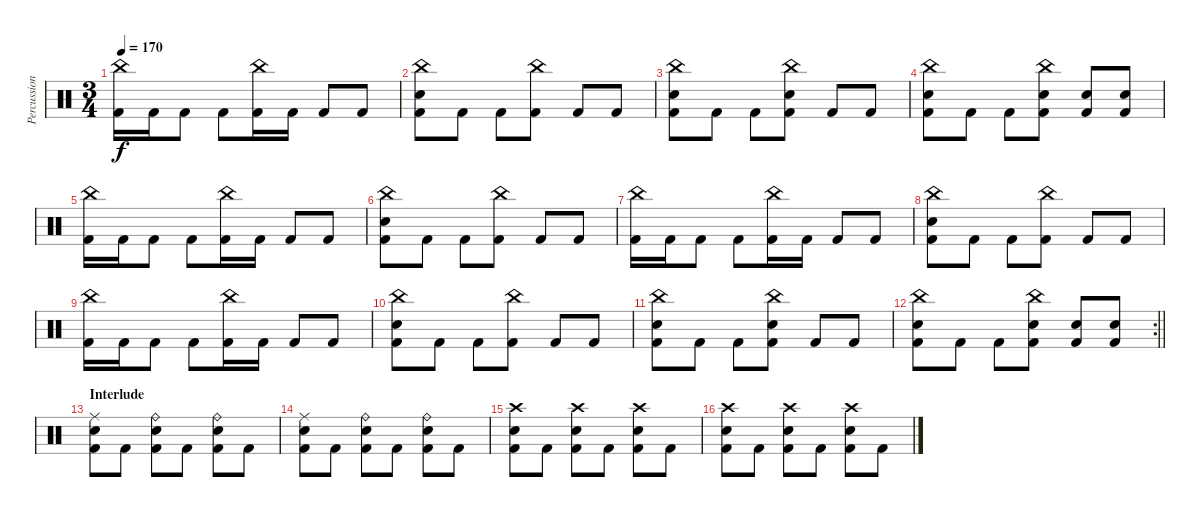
\track ("Percussion" "Percussion") {instrument percussion}
\staff {score}
\articulation defaults
\ts (3 4)
\tempo 170
\clef neutral
\ks c
("China (hit)" "Kick (hit) 2").16{dy f} "Kick (hit) 2".16 "Kick (hit) 2".8 "Kick (hit) 2".8 ("China (hit)" "Kick (hit) 2").16 "Kick (hit) 2".16 "Kick (hit) 2".8 "Kick (hit) 2".8 |
("China (hit)" "Electric Snare (hit)" "Kick (hit) 2").8 "Kick (hit) 2".8 "Kick (hit) 2".8 ("China (hit)" "Kick (hit) 2").8 "Kick (hit) 2".8 "Kick (hit) 2".8 |
("China (hit)" "Electric Snare (hit)" "Kick (hit) 2").8 "Kick (hit) 2".8 "Kick (hit) 2".8 ("China (hit)" "Electric Snare (hit)" "Kick (hit) 2").8 "Kick (hit) 2".8 "Kick (hit) 2".8 |
("China (hit)" "Electric Snare (hit)" "Kick (hit) 2").8 "Kick (hit) 2".8 "Kick (hit) 2".8 ("China (hit)" "Electric Snare (hit)" "Kick (hit) 2").8 ("Electric Snare (hit)" "Kick (hit) 2").8 ("Electric Snare (hit)" "Kick (hit) 2").8 |
("China (hit)" "Kick (hit) 2").16 "Kick (hit) 2".16 "Kick (hit) 2".8 "Kick (hit) 2".8 ("China (hit)" "Kick (hit) 2").16 "Kick (hit) 2".16 "Kick (hit) 2".8 "Kick (hit) 2".8 |
("China (hit)" "Electric Snare (hit)" "Kick (hit) 2").8 "Kick (hit) 2".8 "Kick (hit) 2".8 ("China (hit)" "Kick (hit) 2").8 "Kick (hit) 2".8 "Kick (hit) 2".8 |
("China (hit)" "Kick (hit) 2").16 "Kick (hit) 2".16 "Kick (hit) 2".8 "Kick (hit) 2".8 ("China (hit)" "Kick (hit) 2").16 "Kick (hit) 2".16 "Kick (hit) 2".8 "Kick (hit) 2".8 |
("China (hit)" "Electric Snare (hit)" "Kick (hit) 2").8 "Kick (hit) 2".8 "Kick (hit) 2".8 ("China (hit)" "Kick (hit) 2").8 "Kick (hit) 2".8 "Kick (hit) 2".8 |
("China (hit)" "Kick (hit) 2").16 "Kick (hit) 2".16 "Kick (hit) 2".8 "Kick (hit) 2".8 ("China (hit)" "Kick (hit) 2").16 "Kick (hit) 2".16 "Kick (hit) 2".8 "Kick (hit) 2".8 |
("China (hit)" "Electric Snare (hit)" "Kick (hit) 2").8 "Kick (hit) 2".8 "Kick (hit) 2".8 ("China (hit)" "Kick (hit) 2").8 "Kick (hit) 2".8 "Kick (hit) 2".8 |
("China (hit)" "Electric Snare (hit)" "Kick (hit) 2").8 "Kick (hit) 2".8 "Kick (hit) 2".8 ("China (hit)" "Electric Snare (hit)" "Kick (hit) 2").8 "Kick (hit) 2".8 "Kick (hit) 2".8 |
\rc 2
\barLineRight lightlight
("China (hit)" "Electric Snare (hit)" "Kick (hit) 2").8 "Kick (hit) 2".8 "Kick (hit) 2".8 ("China (hit)" "Electric Snare (hit)" "Kick (hit) 2").8 ("Electric Snare (hit)" "Kick (hit) 2").8 ("Electric Snare (hit)" "Kick (hit) 2").8 |
\section ("" "Interlude")
("Ride (middle)" "Electric Snare (hit)" "Kick (hit) 2").8 "Kick (hit) 2".8 ("Ride (bell)" "Electric Snare (hit)" "Kick (hit) 2").8 "Kick (hit) 2".8 ("Ride (bell)" "Electric Snare (hit)" "Kick (hit) 2").8 "Kick (hit) 2".8 |
("Ride (middle)" "Electric Snare (hit)" "Kick (hit) 2").8 "Kick (hit) 2".8 ("Ride (bell)" "Electric Snare (hit)" "Kick (hit) 2").8 "Kick (hit) 2".8 ("Ride (bell)" "Electric Snare (hit)" "Kick (hit) 2").8 "Kick (hit) 2".8 |
("Crash high (hit)" "Electric Snare (hit)" "Kick (hit) 2").8 "Kick (hit) 2".8 ("Crash high (hit)" "Electric Snare (hit)" "Kick (hit) 2").8 "Kick (hit) 2".8 ("Crash high (hit)" "Electric Snare (hit)" "Kick (hit) 2").8 "Kick (hit) 2".8 |
("Crash high (hit)" "Electric Snare (hit)" "Kick (hit) 2").8 "Kick (hit) 2".8 ("Crash high (hit)" "Electric Snare (hit)" "Kick (hit) 2").8 "Kick (hit) 2".8 ("Crash high (hit)" "Electric Snare (hit)" "Kick (hit) 2").8 "Kick (hit) 2".8
